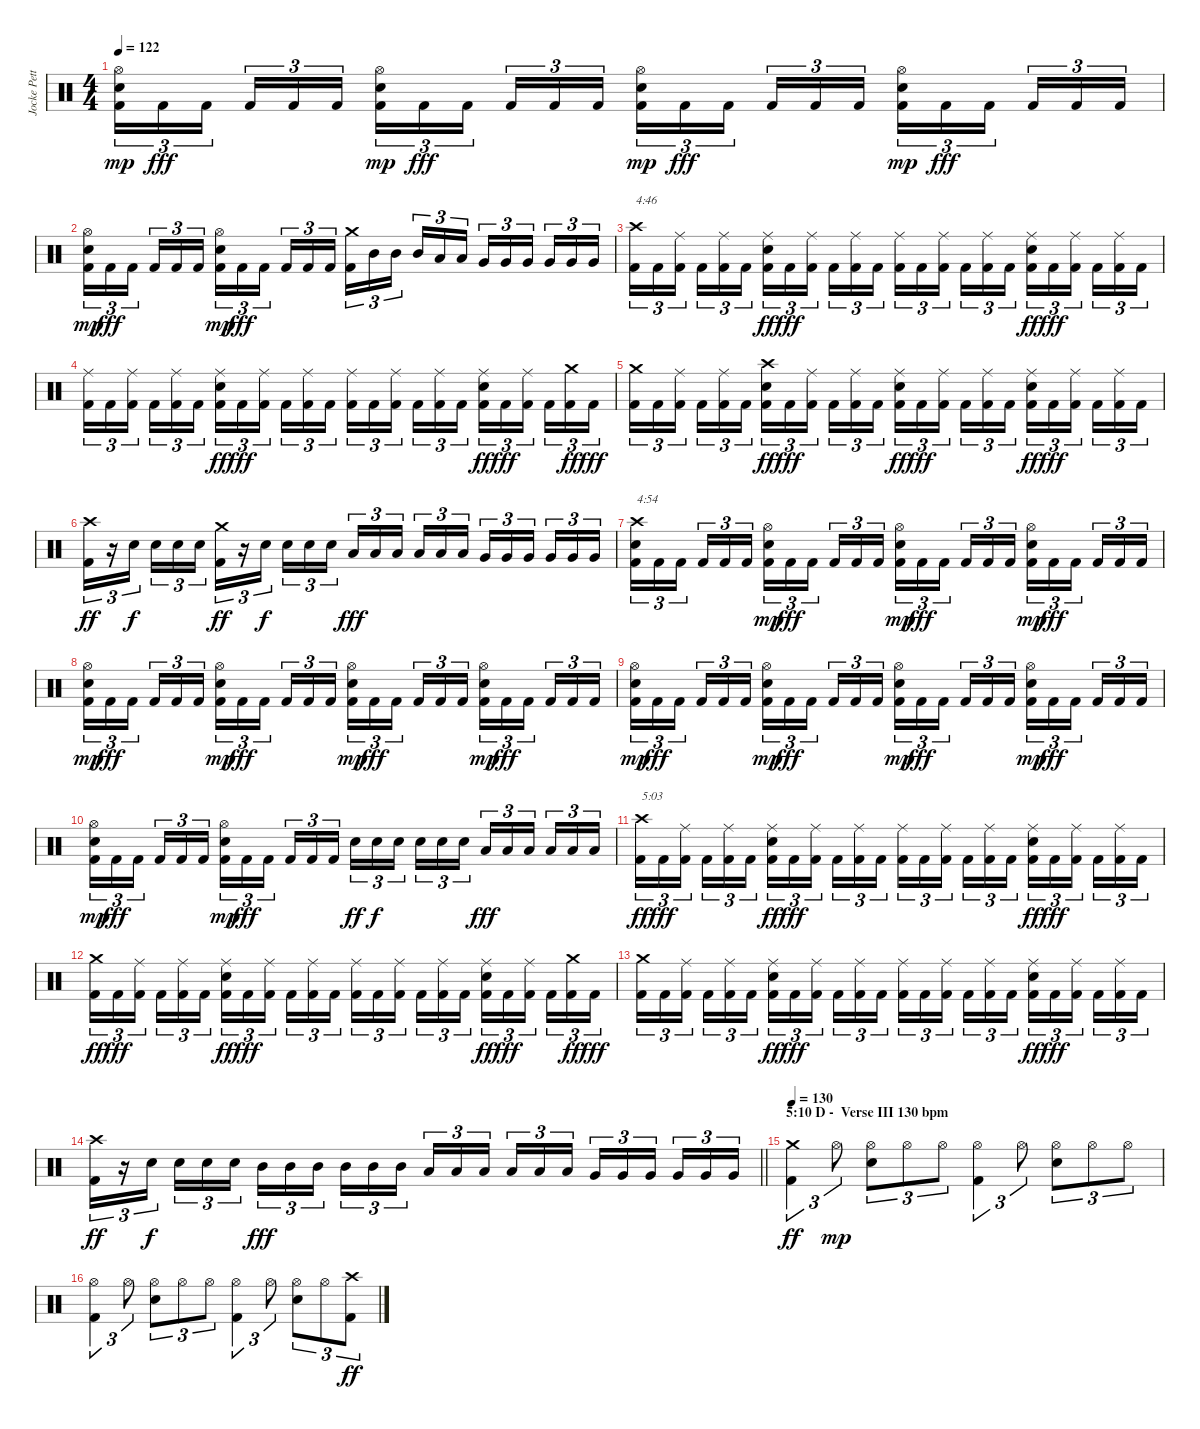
\track ("Jocke Pettersson" "Jocke Pett") {instrument percussion}
\staff {score}
\articulation defaults
\ts (4 4)
\tempo 122
\clef neutral
\ks c
("Kick (hit) 2" "Electric Snare (hit)" "Hi-Hat (open)").16{tu (3 2) dy mp} "Kick (hit) 2".16{tu (3 2) dy fff} "Kick (hit) 2".16{tu (3 2) beam splitsecondary} "Kick (hit) 2".16{tu (3 2)} "Kick (hit) 2".16{tu (3 2)} "Kick (hit) 2".16{tu (3 2)} ("Kick (hit) 2" "Electric Snare (hit)" "Hi-Hat (open)").16{tu (3 2) dy mp} "Kick (hit) 2".16{tu (3 2) dy fff} "Kick (hit) 2".16{tu (3 2) beam splitsecondary} "Kick (hit) 2".16{tu (3 2)} "Kick (hit) 2".16{tu (3 2)} "Kick (hit) 2".16{tu (3 2)} ("Kick (hit) 2" "Electric Snare (hit)" "Hi-Hat (open)").16{tu (3 2) dy mp} "Kick (hit) 2".16{tu (3 2) dy fff} "Kick (hit) 2".16{tu (3 2) beam splitsecondary} "Kick (hit) 2".16{tu (3 2)} "Kick (hit) 2".16{tu (3 2)} "Kick (hit) 2".16{tu (3 2)} ("Kick (hit) 2" "Electric Snare (hit)" "Hi-Hat (open)").16{tu (3 2) dy mp} "Kick (hit) 2".16{tu (3 2) dy fff} "Kick (hit) 2".16{tu (3 2) beam splitsecondary} "Kick (hit) 2".16{tu (3 2)} "Kick (hit) 2".16{tu (3 2)} "Kick (hit) 2".16{tu (3 2)} |
("Kick (hit) 2" "Electric Snare (hit)" "Hi-Hat (open)").16{tu (3 2) dy mp} "Kick (hit) 2".16{tu (3 2) dy fff} "Kick (hit) 2".16{tu (3 2) beam splitsecondary} "Kick (hit) 2".16{tu (3 2)} "Kick (hit) 2".16{tu (3 2)} "Kick (hit) 2".16{tu (3 2)} ("Kick (hit) 2" "Electric Snare (hit)" "Hi-Hat (open)").16{tu (3 2) dy mp} "Kick (hit) 2".16{tu (3 2) dy fff} "Kick (hit) 2".16{tu (3 2) beam splitsecondary} "Kick (hit) 2".16{tu (3 2)} "Kick (hit) 2".16{tu (3 2)} "Kick (hit) 2".16{tu (3 2)} ("Kick (hit) 2" "Crash medium (hit)").16{tu (3 2)} "Mid Tom (hit)".16{tu (3 2)} "Mid Tom (hit)".16{tu (3 2) beam splitsecondary} "Mid Tom (hit)".16{tu (3 2)} "Low Tom (hit)".16{tu (3 2)} "Low Tom (hit)".16{tu (3 2)} "Very Low Tom (hit)".16{tu (3 2)} "Very Low Tom (hit)".16{tu (3 2)} "Very Low Tom (hit)".16{tu (3 2) beam splitsecondary} "Very Low Tom (hit)".16{tu (3 2)} "Very Low Tom (hit)".16{tu (3 2)} "Very Low Tom (hit)".16{tu (3 2)} |
("Kick (hit) 2" "Crash high (hit)").16{tu (3 2) txt "4:46"} "Kick (hit) 2".16{tu (3 2)} ("Kick (hit) 2" "Ride (middle)").16{tu (3 2) beam splitsecondary} "Kick (hit) 2".16{tu (3 2)} ("Kick (hit) 2" "Ride (middle)").16{tu (3 2)} "Kick (hit) 2".16{tu (3 2)} ("Kick (hit) 2" "Electric Snare (hit)" "Ride (middle)").16{tu (3 2) dy ff} "Kick (hit) 2".16{tu (3 2) dy fff} ("Kick (hit) 2" "Ride (middle)").16{tu (3 2) beam splitsecondary} "Kick (hit) 2".16{tu (3 2)} ("Kick (hit) 2" "Ride (middle)").16{tu (3 2)} "Kick (hit) 2".16{tu (3 2)} ("Kick (hit) 2" "Ride (middle)").16{tu (3 2)} "Kick (hit) 2".16{tu (3 2)} ("Kick (hit) 2" "Ride (middle)").16{tu (3 2) beam splitsecondary} "Kick (hit) 2".16{tu (3 2)} ("Kick (hit) 2" "Ride (middle)").16{tu (3 2)} "Kick (hit) 2".16{tu (3 2)} ("Kick (hit) 2" "Electric Snare (hit)" "Ride (middle)").16{tu (3 2) dy ff} "Kick (hit) 2".16{tu (3 2) dy fff} ("Kick (hit) 2" "Ride (middle)").16{tu (3 2) beam splitsecondary} "Kick (hit) 2".16{tu (3 2)} ("Kick (hit) 2" "Ride (middle)").16{tu (3 2)} "Kick (hit) 2".16{tu (3 2)} |
("Kick (hit) 2" "Ride (middle)").16{tu (3 2)} "Kick (hit) 2".16{tu (3 2)} ("Kick (hit) 2" "Ride (middle)").16{tu (3 2) beam splitsecondary} "Kick (hit) 2".16{tu (3 2)} ("Kick (hit) 2" "Ride (middle)").16{tu (3 2)} "Kick (hit) 2".16{tu (3 2)} ("Kick (hit) 2" "Electric Snare (hit)" "Ride (middle)").16{tu (3 2) dy ff} "Kick (hit) 2".16{tu (3 2) dy fff} ("Kick (hit) 2" "Ride (middle)").16{tu (3 2) beam splitsecondary} "Kick (hit) 2".16{tu (3 2)} ("Kick (hit) 2" "Ride (middle)").16{tu (3 2)} "Kick (hit) 2".16{tu (3 2)} ("Kick (hit) 2" "Ride (middle)").16{tu (3 2)} "Kick (hit) 2".16{tu (3 2)} ("Kick (hit) 2" "Ride (middle)").16{tu (3 2) beam splitsecondary} "Kick (hit) 2".16{tu (3 2)} ("Kick (hit) 2" "Ride (middle)").16{tu (3 2)} "Kick (hit) 2".16{tu (3 2)} ("Kick (hit) 2" "Electric Snare (hit)" "Ride (middle)").16{tu (3 2) dy ff} "Kick (hit) 2".16{tu (3 2) dy fff} ("Kick (hit) 2" "Ride (middle)").16{tu (3 2) beam splitsecondary} "Kick (hit) 2".16{tu (3 2)} ("Kick (hit) 2" "Crash medium (hit)").16{tu (3 2) dy ff} "Kick (hit) 2".16{tu (3 2) dy fff} |
("Kick (hit) 2" "Crash medium (hit)").16{tu (3 2)} "Kick (hit) 2".16{tu (3 2)} ("Kick (hit) 2" "Ride (middle)").16{tu (3 2) beam splitsecondary} "Kick (hit) 2".16{tu (3 2)} ("Kick (hit) 2" "Ride (middle)").16{tu (3 2)} "Kick (hit) 2".16{tu (3 2)} ("Kick (hit) 2" "Electric Snare (hit)" "Crash high (hit)").16{tu (3 2) dy ff} "Kick (hit) 2".16{tu (3 2) dy fff} ("Kick (hit) 2" "Ride (middle)").16{tu (3 2) beam splitsecondary} "Kick (hit) 2".16{tu (3 2)} ("Kick (hit) 2" "Ride (middle)").16{tu (3 2)} "Kick (hit) 2".16{tu (3 2)} ("Kick (hit) 2" "Electric Snare (hit)" "Ride (middle)").16{tu (3 2) dy ff} "Kick (hit) 2".16{tu (3 2) dy fff} ("Kick (hit) 2" "Ride (middle)").16{tu (3 2) beam splitsecondary} "Kick (hit) 2".16{tu (3 2)} ("Kick (hit) 2" "Ride (middle)").16{tu (3 2)} "Kick (hit) 2".16{tu (3 2)} ("Kick (hit) 2" "Electric Snare (hit)" "Ride (middle)").16{tu (3 2) dy ff} "Kick (hit) 2".16{tu (3 2) dy fff} ("Kick (hit) 2" "Ride (middle)").16{tu (3 2) beam splitsecondary} "Kick (hit) 2".16{tu (3 2)} ("Kick (hit) 2" "Ride (middle)").16{tu (3 2)} "Kick (hit) 2".16{tu (3 2)} |
("Kick (hit) 2" "Crash high (hit)").16{tu (3 2) dy ff} r.16{tu (3 2)} "Electric Snare (hit)".16{tu (3 2) dy f beam splitsecondary} "Electric Snare (hit)".16{tu (3 2)} "Electric Snare (hit)".16{tu (3 2)} "Electric Snare (hit)".16{tu (3 2)} ("Kick (hit) 2" "Crash medium (hit)").16{tu (3 2) dy ff} r.16{tu (3 2)} "Electric Snare (hit)".16{tu (3 2) dy f beam splitsecondary} "Electric Snare (hit)".16{tu (3 2)} "Electric Snare (hit)".16{tu (3 2)} "Electric Snare (hit)".16{tu (3 2)} "Low Tom (hit)".16{tu (3 2) dy fff} "Low Tom (hit)".16{tu (3 2)} "Low Tom (hit)".16{tu (3 2) beam splitsecondary} "Low Tom (hit)".16{tu (3 2)} "Low Tom (hit)".16{tu (3 2)} "Low Tom (hit)".16{tu (3 2)} "Very Low Tom (hit)".16{tu (3 2)} "Very Low Tom (hit)".16{tu (3 2)} "Very Low Tom (hit)".16{tu (3 2) beam splitsecondary} "Very Low Tom (hit)".16{tu (3 2)} "Very Low Tom (hit)".16{tu (3 2)} "Very Low Tom (hit)".16{tu (3 2)} |
("Kick (hit) 2" "Electric Snare (hit)" "Crash high (hit)").16{tu (3 2) txt "4:54"} "Kick (hit) 2".16{tu (3 2)} "Kick (hit) 2".16{tu (3 2) beam splitsecondary} "Kick (hit) 2".16{tu (3 2)} "Kick (hit) 2".16{tu (3 2)} "Kick (hit) 2".16{tu (3 2)} ("Kick (hit) 2" "Electric Snare (hit)" "Hi-Hat (open)").16{tu (3 2) dy mp} "Kick (hit) 2".16{tu (3 2) dy fff} "Kick (hit) 2".16{tu (3 2) beam splitsecondary} "Kick (hit) 2".16{tu (3 2)} "Kick (hit) 2".16{tu (3 2)} "Kick (hit) 2".16{tu (3 2)} ("Kick (hit) 2" "Electric Snare (hit)" "Hi-Hat (open)").16{tu (3 2) dy mp} "Kick (hit) 2".16{tu (3 2) dy fff} "Kick (hit) 2".16{tu (3 2) beam splitsecondary} "Kick (hit) 2".16{tu (3 2)} "Kick (hit) 2".16{tu (3 2)} "Kick (hit) 2".16{tu (3 2)} ("Kick (hit) 2" "Electric Snare (hit)" "Hi-Hat (open)").16{tu (3 2) dy mp} "Kick (hit) 2".16{tu (3 2) dy fff} "Kick (hit) 2".16{tu (3 2) beam splitsecondary} "Kick (hit) 2".16{tu (3 2)} "Kick (hit) 2".16{tu (3 2)} "Kick (hit) 2".16{tu (3 2)} |
("Kick (hit) 2" "Electric Snare (hit)" "Hi-Hat (open)").16{tu (3 2) dy mp} "Kick (hit) 2".16{tu (3 2) dy fff} "Kick (hit) 2".16{tu (3 2) beam splitsecondary} "Kick (hit) 2".16{tu (3 2)} "Kick (hit) 2".16{tu (3 2)} "Kick (hit) 2".16{tu (3 2)} ("Kick (hit) 2" "Electric Snare (hit)" "Hi-Hat (open)").16{tu (3 2) dy mp} "Kick (hit) 2".16{tu (3 2) dy fff} "Kick (hit) 2".16{tu (3 2) beam splitsecondary} "Kick (hit) 2".16{tu (3 2)} "Kick (hit) 2".16{tu (3 2)} "Kick (hit) 2".16{tu (3 2)} ("Kick (hit) 2" "Electric Snare (hit)" "Hi-Hat (open)").16{tu (3 2) dy mp} "Kick (hit) 2".16{tu (3 2) dy fff} "Kick (hit) 2".16{tu (3 2) beam splitsecondary} "Kick (hit) 2".16{tu (3 2)} "Kick (hit) 2".16{tu (3 2)} "Kick (hit) 2".16{tu (3 2)} ("Kick (hit) 2" "Electric Snare (hit)" "Hi-Hat (open)").16{tu (3 2) dy mp} "Kick (hit) 2".16{tu (3 2) dy fff} "Kick (hit) 2".16{tu (3 2) beam splitsecondary} "Kick (hit) 2".16{tu (3 2)} "Kick (hit) 2".16{tu (3 2)} "Kick (hit) 2".16{tu (3 2)} |
("Kick (hit) 2" "Electric Snare (hit)" "Hi-Hat (open)").16{tu (3 2) dy mp} "Kick (hit) 2".16{tu (3 2) dy fff} "Kick (hit) 2".16{tu (3 2) beam splitsecondary} "Kick (hit) 2".16{tu (3 2)} "Kick (hit) 2".16{tu (3 2)} "Kick (hit) 2".16{tu (3 2)} ("Kick (hit) 2" "Electric Snare (hit)" "Hi-Hat (open)").16{tu (3 2) dy mp} "Kick (hit) 2".16{tu (3 2) dy fff} "Kick (hit) 2".16{tu (3 2) beam splitsecondary} "Kick (hit) 2".16{tu (3 2)} "Kick (hit) 2".16{tu (3 2)} "Kick (hit) 2".16{tu (3 2)} ("Kick (hit) 2" "Electric Snare (hit)" "Hi-Hat (open)").16{tu (3 2) dy mp} "Kick (hit) 2".16{tu (3 2) dy fff} "Kick (hit) 2".16{tu (3 2) beam splitsecondary} "Kick (hit) 2".16{tu (3 2)} "Kick (hit) 2".16{tu (3 2)} "Kick (hit) 2".16{tu (3 2)} ("Kick (hit) 2" "Electric Snare (hit)" "Hi-Hat (open)").16{tu (3 2) dy mp} "Kick (hit) 2".16{tu (3 2) dy fff} "Kick (hit) 2".16{tu (3 2) beam splitsecondary} "Kick (hit) 2".16{tu (3 2)} "Kick (hit) 2".16{tu (3 2)} "Kick (hit) 2".16{tu (3 2)} |
("Kick (hit) 2" "Electric Snare (hit)" "Hi-Hat (open)").16{tu (3 2) dy mp} "Kick (hit) 2".16{tu (3 2) dy fff} "Kick (hit) 2".16{tu (3 2) beam splitsecondary} "Kick (hit) 2".16{tu (3 2)} "Kick (hit) 2".16{tu (3 2)} "Kick (hit) 2".16{tu (3 2)} ("Kick (hit) 2" "Electric Snare (hit)" "Hi-Hat (open)").16{tu (3 2) dy mp} "Kick (hit) 2".16{tu (3 2) dy fff} "Kick (hit) 2".16{tu (3 2) beam splitsecondary} "Kick (hit) 2".16{tu (3 2)} "Kick (hit) 2".16{tu (3 2)} "Kick (hit) 2".16{tu (3 2)} "Electric Snare (hit)".16{tu (3 2) dy ff} "Electric Snare (hit)".16{tu (3 2) dy f} "Electric Snare (hit)".16{tu (3 2) beam splitsecondary} "Electric Snare (hit)".16{tu (3 2)} "Electric Snare (hit)".16{tu (3 2)} "Electric Snare (hit)".16{tu (3 2)} "Low Tom (hit)".16{tu (3 2) dy fff} "Low Tom (hit)".16{tu (3 2)} "Low Tom (hit)".16{tu (3 2) beam splitsecondary} "Low Tom (hit)".16{tu (3 2)} "Low Tom (hit)".16{tu (3 2)} "Low Tom (hit)".16{tu (3 2)} |
("Kick (hit) 2" "Crash high (hit)").16{tu (3 2) txt "5:03" dy ff} "Kick (hit) 2".16{tu (3 2) dy fff} ("Kick (hit) 2" "Ride (middle)").16{tu (3 2) beam splitsecondary} "Kick (hit) 2".16{tu (3 2)} ("Kick (hit) 2" "Ride (middle)").16{tu (3 2)} "Kick (hit) 2".16{tu (3 2)} ("Kick (hit) 2" "Electric Snare (hit)" "Ride (middle)").16{tu (3 2) dy ff} "Kick (hit) 2".16{tu (3 2) dy fff} ("Kick (hit) 2" "Ride (middle)").16{tu (3 2) beam splitsecondary} "Kick (hit) 2".16{tu (3 2)} ("Kick (hit) 2" "Ride (middle)").16{tu (3 2)} "Kick (hit) 2".16{tu (3 2)} ("Kick (hit) 2" "Ride (middle)").16{tu (3 2)} "Kick (hit) 2".16{tu (3 2)} ("Kick (hit) 2" "Ride (middle)").16{tu (3 2) beam splitsecondary} "Kick (hit) 2".16{tu (3 2)} ("Kick (hit) 2" "Ride (middle)").16{tu (3 2)} "Kick (hit) 2".16{tu (3 2)} ("Kick (hit) 2" "Electric Snare (hit)" "Ride (middle)").16{tu (3 2) dy ff} "Kick (hit) 2".16{tu (3 2) dy fff} ("Kick (hit) 2" "Ride (middle)").16{tu (3 2) beam splitsecondary} "Kick (hit) 2".16{tu (3 2)} ("Kick (hit) 2" "Ride (middle)").16{tu (3 2)} "Kick (hit) 2".16{tu (3 2)} |
("Kick (hit) 2" "Crash medium (hit)").16{tu (3 2) dy ff} "Kick (hit) 2".16{tu (3 2) dy fff} ("Kick (hit) 2" "Ride (middle)").16{tu (3 2) beam splitsecondary} "Kick (hit) 2".16{tu (3 2)} ("Kick (hit) 2" "Ride (middle)").16{tu (3 2)} "Kick (hit) 2".16{tu (3 2)} ("Kick (hit) 2" "Electric Snare (hit)" "Ride (middle)").16{tu (3 2) dy ff} "Kick (hit) 2".16{tu (3 2) dy fff} ("Kick (hit) 2" "Ride (middle)").16{tu (3 2) beam splitsecondary} "Kick (hit) 2".16{tu (3 2)} ("Kick (hit) 2" "Ride (middle)").16{tu (3 2)} "Kick (hit) 2".16{tu (3 2)} ("Kick (hit) 2" "Ride (middle)").16{tu (3 2)} "Kick (hit) 2".16{tu (3 2)} ("Kick (hit) 2" "Ride (middle)").16{tu (3 2) beam splitsecondary} "Kick (hit) 2".16{tu (3 2)} ("Kick (hit) 2" "Ride (middle)").16{tu (3 2)} "Kick (hit) 2".16{tu (3 2)} ("Kick (hit) 2" "Electric Snare (hit)" "Ride (middle)").16{tu (3 2) dy ff} "Kick (hit) 2".16{tu (3 2) dy fff} ("Kick (hit) 2" "Ride (middle)").16{tu (3 2) beam splitsecondary} "Kick (hit) 2".16{tu (3 2)} ("Kick (hit) 2" "Crash medium (hit)").16{tu (3 2) dy ff} "Kick (hit) 2".16{tu (3 2) dy fff} |
("Kick (hit) 2" "Crash medium (hit)").16{tu (3 2)} "Kick (hit) 2".16{tu (3 2)} ("Kick (hit) 2" "Ride (middle)").16{tu (3 2) beam splitsecondary} "Kick (hit) 2".16{tu (3 2)} ("Kick (hit) 2" "Ride (middle)").16{tu (3 2)} "Kick (hit) 2".16{tu (3 2)} ("Kick (hit) 2" "Electric Snare (hit)" "Ride (middle)").16{tu (3 2) dy ff} "Kick (hit) 2".16{tu (3 2) dy fff} ("Kick (hit) 2" "Ride (middle)").16{tu (3 2) beam splitsecondary} "Kick (hit) 2".16{tu (3 2)} ("Kick (hit) 2" "Ride (middle)").16{tu (3 2)} "Kick (hit) 2".16{tu (3 2)} ("Kick (hit) 2" "Ride (middle)").16{tu (3 2)} "Kick (hit) 2".16{tu (3 2)} ("Kick (hit) 2" "Ride (middle)").16{tu (3 2) beam splitsecondary} "Kick (hit) 2".16{tu (3 2)} ("Kick (hit) 2" "Ride (middle)").16{tu (3 2)} "Kick (hit) 2".16{tu (3 2)} ("Kick (hit) 2" "Electric Snare (hit)" "Ride (middle)").16{tu (3 2) dy ff} "Kick (hit) 2".16{tu (3 2) dy fff} ("Kick (hit) 2" "Ride (middle)").16{tu (3 2) beam splitsecondary} "Kick (hit) 2".16{tu (3 2)} ("Kick (hit) 2" "Ride (middle)").16{tu (3 2)} "Kick (hit) 2".16{tu (3 2)} |
\barLineRight lightlight
("Kick (hit) 2" "Crash high (hit)").16{tu (3 2) dy ff} r.16{tu (3 2)} "Electric Snare (hit)".16{tu (3 2) dy f beam splitsecondary} "Electric Snare (hit)".16{tu (3 2)} "Electric Snare (hit)".16{tu (3 2)} "Electric Snare (hit)".16{tu (3 2)} "Mid Tom (hit)".16{tu (3 2) dy fff} "Mid Tom (hit)".16{tu (3 2)} "Mid Tom (hit)".16{tu (3 2) beam splitsecondary} "Mid Tom (hit)".16{tu (3 2)} "Mid Tom (hit)".16{tu (3 2)} "Mid Tom (hit)".16{tu (3 2)} "Low Tom (hit)".16{tu (3 2)} "Low Tom (hit)".16{tu (3 2)} "Low Tom (hit)".16{tu (3 2) beam splitsecondary} "Low Tom (hit)".16{tu (3 2)} "Low Tom (hit)".16{tu (3 2)} "Low Tom (hit)".16{tu (3 2)} "Very Low Tom (hit)".16{tu (3 2)} "Very Low Tom (hit)".16{tu (3 2)} "Very Low Tom (hit)".16{tu (3 2) beam splitsecondary} "Very Low Tom (hit)".16{tu (3 2)} "Very Low Tom (hit)".16{tu (3 2)} "Very Low Tom (hit)".16{tu (3 2)} |
\section ("" "5:10 D -  Verse III 130 bpm")
\tempo 130
("Kick (hit) 2" "Crash medium (hit)").4{tu (3 2) dy ff} "Hi-Hat (open)".8{tu (3 2) dy mp} ("Electric Snare (hit)" "Hi-Hat (open)").8{tu (3 2)} "Hi-Hat (open)".8{tu (3 2)} "Hi-Hat (open)".8{tu (3 2)} ("Kick (hit) 2" "Hi-Hat (open)").4{tu (3 2)} "Hi-Hat (open)".8{tu (3 2)} ("Electric Snare (hit)" "Hi-Hat (open)").8{tu (3 2)} "Hi-Hat (open)".8{tu (3 2)} "Hi-Hat (open)".8{tu (3 2)} |
("Kick (hit) 2" "Hi-Hat (open)").4{tu (3 2)} "Hi-Hat (open)".8{tu (3 2)} ("Electric Snare (hit)" "Hi-Hat (open)").8{tu (3 2)} "Hi-Hat (open)".8{tu (3 2)} "Hi-Hat (open)".8{tu (3 2)} ("Kick (hit) 2" "Hi-Hat (open)").4{tu (3 2)} "Hi-Hat (open)".8{tu (3 2)} ("Electric Snare (hit)" "Hi-Hat (open)").8{tu (3 2)} "Hi-Hat (open)".8{tu (3 2)} ("Kick (hit) 2" "Crash high (hit)").8{tu (3 2) dy ff}
